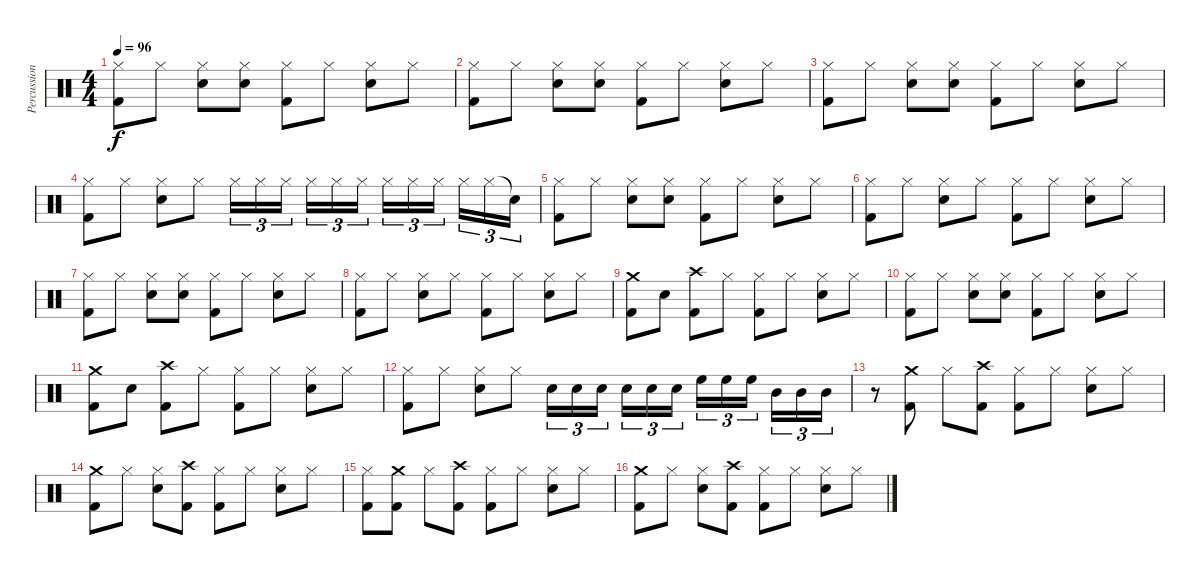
\track ("Percussion" "Percussion") {instrument percussion}
\staff {score}
\articulation defaults
\ts (4 4)
\tempo 96
\clef neutral
\ks c
("Hi-Hat (closed)" "Kick (hit) 2").8{dy f} "Hi-Hat (closed)".8 ("Hi-Hat (closed)" "Snare (hit) 2").8 ("Hi-Hat (closed)" "Snare (hit) 2").8 ("Hi-Hat (closed)" "Kick (hit) 2").8 "Hi-Hat (closed)".8 ("Hi-Hat (closed)" "Snare (hit) 2").8 "Hi-Hat (closed)".8 |
("Hi-Hat (closed)" "Kick (hit) 2").8 "Hi-Hat (closed)".8 ("Hi-Hat (closed)" "Snare (hit) 2").8 ("Hi-Hat (closed)" "Snare (hit) 2").8 ("Hi-Hat (closed)" "Kick (hit) 2").8 "Hi-Hat (closed)".8 ("Hi-Hat (closed)" "Snare (hit) 2").8 "Hi-Hat (closed)".8 |
("Hi-Hat (closed)" "Kick (hit) 2").8 "Hi-Hat (closed)".8 ("Hi-Hat (closed)" "Snare (hit) 2").8 ("Hi-Hat (closed)" "Snare (hit) 2").8 ("Hi-Hat (closed)" "Kick (hit) 2").8 "Hi-Hat (closed)".8 ("Hi-Hat (closed)" "Snare (hit) 2").8 "Hi-Hat (closed)".8 |
("Hi-Hat (closed)" "Kick (hit) 2").8 "Hi-Hat (closed)".8 ("Hi-Hat (closed)" "Snare (hit) 2").8 "Hi-Hat (closed)".8 "Hi-Hat (closed)".16{tu (3 2)} "Hi-Hat (closed)".16{tu (3 2)} "Hi-Hat (closed)".16{tu (3 2) beam splitsecondary} "Hi-Hat (closed)".16{tu (3 2)} "Hi-Hat (closed)".16{tu (3 2)} "Hi-Hat (closed)".16{tu (3 2)} "Hi-Hat (closed)".16{tu (3 2)} "Hi-Hat (closed)".16{tu (3 2)} "Hi-Hat (closed)".16{tu (3 2) beam splitsecondary} "Hi-Hat (closed)".16{tu (3 2)} "Hi-Hat (closed)".16{tu (3 2)} "Snare (hit)"{t}.16{tu (3 2)} |
("Hi-Hat (closed)" "Kick (hit) 2").8 "Hi-Hat (closed)".8 ("Hi-Hat (closed)" "Snare (hit) 2").8 ("Hi-Hat (closed)" "Snare (hit) 2").8 ("Hi-Hat (closed)" "Kick (hit) 2").8 "Hi-Hat (closed)".8 ("Hi-Hat (closed)" "Snare (hit) 2").8 "Hi-Hat (closed)".8 |
("Hi-Hat (closed)" "Kick (hit) 2").8 "Hi-Hat (closed)".8 ("Hi-Hat (closed)" "Snare (hit) 2").8 "Hi-Hat (closed)".8 ("Hi-Hat (closed)" "Kick (hit) 2").8 "Hi-Hat (closed)".8 ("Hi-Hat (closed)" "Snare (hit) 2").8 "Hi-Hat (closed)".8 |
("Hi-Hat (closed)" "Kick (hit) 2").8 "Hi-Hat (closed)".8 ("Hi-Hat (closed)" "Snare (hit) 2").8 ("Hi-Hat (closed)" "Snare (hit) 2").8 ("Hi-Hat (closed)" "Kick (hit) 2").8 "Hi-Hat (closed)".8 ("Hi-Hat (closed)" "Snare (hit) 2").8 "Hi-Hat (closed)".8 |
("Hi-Hat (closed)" "Kick (hit) 2").8 "Hi-Hat (closed)".8 ("Hi-Hat (closed)" "Snare (hit) 2").8 "Hi-Hat (closed)".8 ("Hi-Hat (closed)" "Kick (hit) 2").8 "Hi-Hat (closed)".8 ("Hi-Hat (closed)" "Snare (hit) 2").8 "Hi-Hat (closed)".8 |
("Crash medium (hit)" "Kick (hit) 2").8 "Snare (hit) 2".8 ("Crash high (hit)" "Kick (hit) 2").8 "Hi-Hat (closed)".8 ("Hi-Hat (closed)" "Kick (hit) 2").8 "Hi-Hat (closed)".8 ("Hi-Hat (closed)" "Snare (hit) 2").8 "Hi-Hat (closed)".8 |
("Hi-Hat (closed)" "Kick (hit) 2").8 "Hi-Hat (closed)".8 ("Hi-Hat (closed)" "Snare (hit) 2").8 ("Hi-Hat (closed)" "Snare (hit) 2").8 ("Hi-Hat (closed)" "Kick (hit) 2").8 "Hi-Hat (closed)".8 ("Hi-Hat (closed)" "Snare (hit) 2").8 "Hi-Hat (closed)".8 |
("Crash medium (hit)" "Kick (hit) 2").8 "Snare (hit) 2".8 ("Crash high (hit)" "Kick (hit) 2").8 "Hi-Hat (closed)".8 ("Hi-Hat (closed)" "Kick (hit) 2").8 "Hi-Hat (closed)".8 ("Hi-Hat (closed)" "Snare (hit) 2").8 "Hi-Hat (closed)".8 |
("Hi-Hat (closed)" "Kick (hit) 2").8 "Hi-Hat (closed)".8 ("Hi-Hat (closed)" "Snare (hit) 2").8 "Hi-Hat (closed)".8 "Snare (hit) 2".16{tu (3 2)} "Snare (hit) 2".16{tu (3 2)} "Snare (hit) 2".16{tu (3 2) beam splitsecondary} "Snare (hit) 2".16{tu (3 2)} "Snare (hit) 2".16{tu (3 2)} "Snare (hit) 2".16{tu (3 2)} "High Floor Tom (hit)".16{tu (3 2)} "High Floor Tom (hit)".16{tu (3 2)} "High Floor Tom (hit)".16{tu (3 2) beam splitsecondary} "Mid Tom (hit)".16{tu (3 2)} "Mid Tom (hit)".16{tu (3 2)} "Mid Tom (hit)".16{tu (3 2)} |
r.8 ("Crash medium (hit)" "Kick (hit) 2").8 "Hi-Hat (closed)".8 ("Crash high (hit)" "Kick (hit) 2").8 ("Hi-Hat (closed)" "Kick (hit) 2").8 "Hi-Hat (closed)".8 ("Hi-Hat (closed)" "Snare (hit) 2").8 "Hi-Hat (closed)".8 |
("Crash medium (hit)" "Kick (hit) 2").8 "Hi-Hat (closed)".8 ("Hi-Hat (closed)" "Snare (hit) 2").8 ("Crash high (hit)" "Kick (hit) 2").8 ("Hi-Hat (closed)" "Kick (hit) 2").8 "Hi-Hat (closed)".8 ("Hi-Hat (closed)" "Snare (hit) 2").8 "Hi-Hat (closed)".8 |
("Kick (hit) 2" "Hi-Hat (closed)").8 ("Crash medium (hit)" "Kick (hit) 2").8 "Hi-Hat (closed)".8 ("Crash high (hit)" "Kick (hit) 2").8 ("Hi-Hat (closed)" "Kick (hit) 2").8 "Hi-Hat (closed)".8 ("Hi-Hat (closed)" "Snare (hit) 2").8 "Hi-Hat (closed)".8 |
("Crash medium (hit)" "Kick (hit) 2").8 "Hi-Hat (closed)".8 ("Hi-Hat (closed)" "Snare (hit) 2").8 ("Crash high (hit)" "Kick (hit) 2").8 ("Hi-Hat (closed)" "Kick (hit) 2").8 "Hi-Hat (closed)".8 ("Hi-Hat (closed)" "Snare (hit) 2").8 "Hi-Hat (closed)".8
